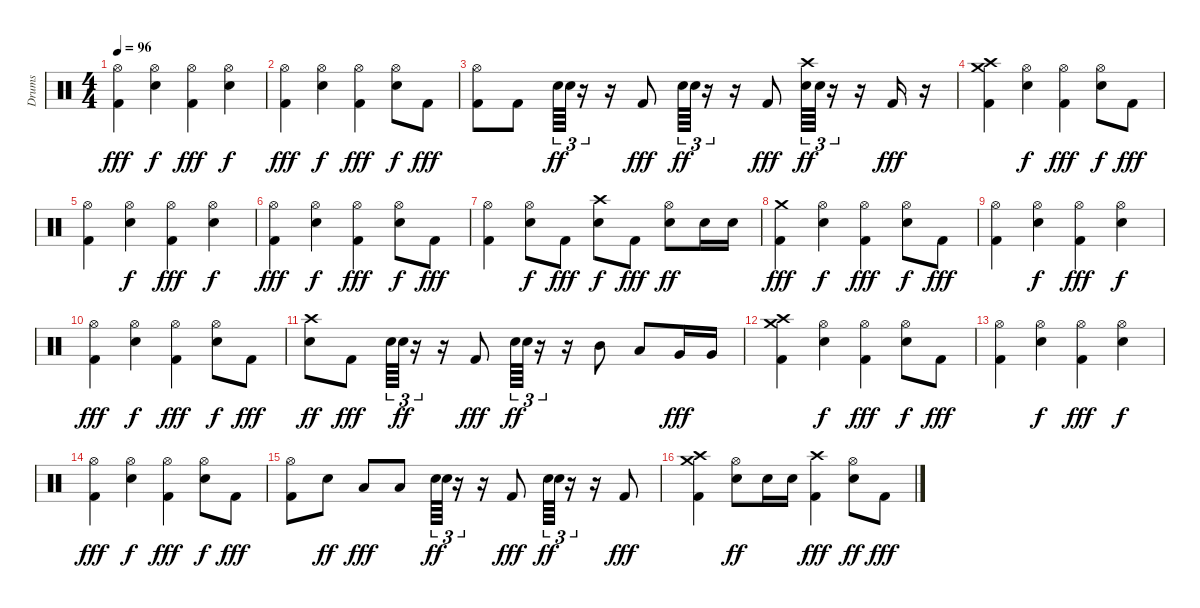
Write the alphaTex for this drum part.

\track ("Drums" "Drums") {instrument percussion}
\staff {score}
\articulation defaults
\ts (4 4)
\tempo 96
\clef neutral
\ks c
("Hi-Hat (open)" "Kick (hit) 2").4{dy fff} ("Hi-Hat (open)" "Electric Snare (hit)").4{dy f} ("Hi-Hat (open)" "Kick (hit) 2").4{dy fff} ("Hi-Hat (open)" "Electric Snare (hit)").4{dy f} |
("Hi-Hat (open)" "Kick (hit) 2").4{dy fff} ("Hi-Hat (open)" "Electric Snare (hit)").4{dy f} ("Hi-Hat (open)" "Kick (hit) 2").4{dy fff} ("Hi-Hat (open)" "Electric Snare (hit)").8{dy f} "Kick (hit) 2".8{dy fff} |
("Hi-Hat (open)" "Kick (hit) 2").8 "Kick (hit) 2".8 "Electric Snare (hit)".64{tu (3 2) dy ff} "Electric Snare (hit)".64{tu (3 2)} r.16{tu (3 2)} r.16 "Kick (hit) 2".8{dy fff} "Electric Snare (hit)".64{tu (3 2) dy ff} "Electric Snare (hit)".64{tu (3 2)} r.16{tu (3 2)} r.16 "Kick (hit) 2".8{dy fff} ("Crash high (hit)" "Electric Snare (hit)").64{tu (3 2) dy ff} "Electric Snare (hit)".64{tu (3 2)} r.16{tu (3 2)} r.16 "Kick (hit) 2".16{dy fff} r.16 |
("Crash high (hit)" "Crash medium (hit)" "Kick (hit) 2").4 ("Hi-Hat (open)" "Electric Snare (hit)").4{dy f} ("Hi-Hat (open)" "Kick (hit) 2").4{dy fff} ("Hi-Hat (open)" "Electric Snare (hit)").8{dy f} "Kick (hit) 2".8{dy fff} |
("Hi-Hat (open)" "Kick (hit) 2").4 ("Hi-Hat (open)" "Electric Snare (hit)").4{dy f} ("Hi-Hat (open)" "Kick (hit) 2").4{dy fff} ("Hi-Hat (open)" "Electric Snare (hit)").4{dy f} |
("Hi-Hat (open)" "Kick (hit) 2").4{dy fff} ("Hi-Hat (open)" "Electric Snare (hit)").4{dy f} ("Hi-Hat (open)" "Kick (hit) 2").4{dy fff} ("Hi-Hat (open)" "Electric Snare (hit)").8{dy f} "Kick (hit) 2".8{dy fff} |
("Hi-Hat (open)" "Kick (hit) 2").4 ("Hi-Hat (open)" "Electric Snare (hit)").8{dy f} "Kick (hit) 2".8{dy fff} ("Crash high (hit)" "Electric Snare (hit)").8{dy f} "Kick (hit) 2".8{dy fff} ("Hi-Hat (open)" "Electric Snare (hit)").8{dy ff} "Electric Snare (hit)".16 "Electric Snare (hit)".16 |
("Crash medium (hit)" "Kick (hit) 2").4{dy fff} ("Hi-Hat (open)" "Electric Snare (hit)").4{dy f} ("Hi-Hat (open)" "Kick (hit) 2").4{dy fff} ("Hi-Hat (open)" "Electric Snare (hit)").8{dy f} "Kick (hit) 2".8{dy fff} |
("Hi-Hat (open)" "Kick (hit) 2").4 ("Hi-Hat (open)" "Electric Snare (hit)").4{dy f} ("Hi-Hat (open)" "Kick (hit) 2").4{dy fff} ("Hi-Hat (open)" "Electric Snare (hit)").4{dy f} |
("Hi-Hat (open)" "Kick (hit) 2").4{dy fff} ("Hi-Hat (open)" "Electric Snare (hit)").4{dy f} ("Hi-Hat (open)" "Kick (hit) 2").4{dy fff} ("Hi-Hat (open)" "Electric Snare (hit)").8{dy f} "Kick (hit) 2".8{dy fff} |
("Crash high (hit)" "Electric Snare (hit)").8{dy ff} "Kick (hit) 2".8{dy fff} "Electric Snare (hit)".64{tu (3 2)} "Electric Snare (hit)".64{tu (3 2) dy ff} r.16{tu (3 2)} r.16 "Kick (hit) 2".8{dy fff} "Electric Snare (hit)".64{tu (3 2) dy ff} "Electric Snare (hit)".64{tu (3 2)} r.16{tu (3 2)} r.16 "Mid Tom (hit)".8 "Low Tom (hit)".8 "Very Low Tom (hit)".16{dy fff} "Very Low Tom (hit)".16 |
("Crash high (hit)" "Crash medium (hit)" "Kick (hit) 2").4 ("Hi-Hat (open)" "Electric Snare (hit)").4{dy f} ("Hi-Hat (open)" "Kick (hit) 2").4{dy fff} ("Hi-Hat (open)" "Electric Snare (hit)").8{dy f} "Kick (hit) 2".8{dy fff} |
("Hi-Hat (open)" "Kick (hit) 2").4 ("Hi-Hat (open)" "Electric Snare (hit)").4{dy f} ("Hi-Hat (open)" "Kick (hit) 2").4{dy fff} ("Hi-Hat (open)" "Electric Snare (hit)").4{dy f} |
("Hi-Hat (open)" "Kick (hit) 2").4{dy fff} ("Hi-Hat (open)" "Electric Snare (hit)").4{dy f} ("Hi-Hat (open)" "Kick (hit) 2").4{dy fff} ("Hi-Hat (open)" "Electric Snare (hit)").8{dy f} "Kick (hit) 2".8{dy fff} |
("Hi-Hat (open)" "Kick (hit) 2").8 "Electric Snare (hit)".8{dy ff} "Low Tom (hit)".8{dy fff} "Low Tom (hit)".8 "Electric Snare (hit)".64{tu (3 2) dy ff} "Electric Snare (hit)".64{tu (3 2)} r.16{tu (3 2)} r.16 "Kick (hit) 2".8{dy fff} "Electric Snare (hit)".64{tu (3 2) dy ff} "Electric Snare (hit)".64{tu (3 2)} r.16{tu (3 2)} r.16 "Kick (hit) 2".8{dy fff} |
("Crash high (hit)" "Crash medium (hit)" "Kick (hit) 2").4 ("Hi-Hat (open)" "Electric Snare (hit)").8{dy ff} "Electric Snare (hit)".16 "Electric Snare (hit)".16 ("Crash high (hit)" "Kick (hit) 2").4{dy fff} ("Hi-Hat (open)" "Electric Snare (hit)").8{dy ff} "Kick (hit) 2".8{dy fff}
